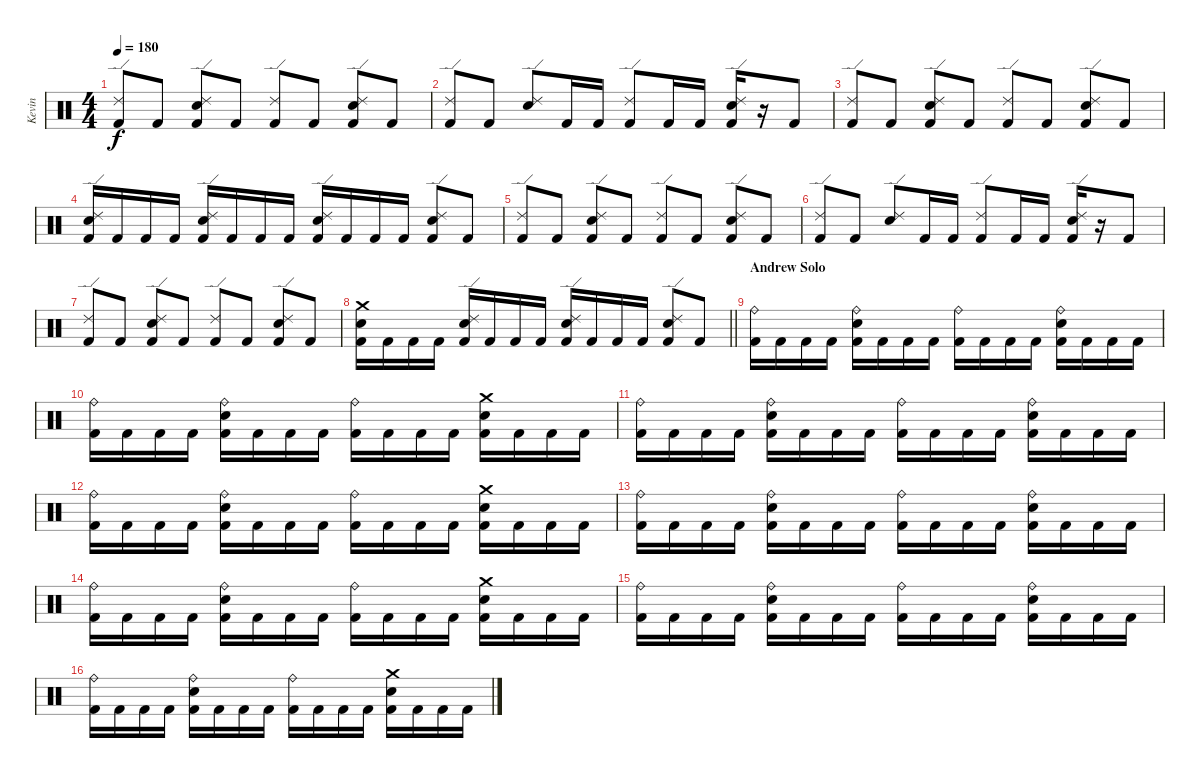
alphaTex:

\track ("Kevin" "Kevin") {instrument percussion}
\staff {score}
\articulation defaults
\ts (4 4)
\tempo 180
\clef neutral
\ks c
("Ride (edge) 2" "Kick (hit) 2").8{dy f} "Kick (hit) 2".8 ("Ride (edge) 2" "Electric Snare (hit)" "Kick (hit) 2").8 "Kick (hit) 2".8 ("Ride (edge) 2" "Kick (hit) 2").8 "Kick (hit) 2".8 ("Ride (edge) 2" "Electric Snare (hit)" "Kick (hit) 2").8 "Kick (hit) 2".8 |
("Ride (edge) 2" "Kick (hit) 2").8 "Kick (hit) 2".8 ("Ride (edge) 2" "Electric Snare (hit)").8 "Kick (hit) 2".16 "Kick (hit) 2".16 ("Ride (edge) 2" "Kick (hit) 2").8 "Kick (hit) 2".16 "Kick (hit) 2".16 ("Ride (edge) 2" "Electric Snare (hit)" "Kick (hit) 2").16 r.16 "Kick (hit) 2".8 |
("Ride (edge) 2" "Kick (hit) 2").8 "Kick (hit) 2".8 ("Ride (edge) 2" "Electric Snare (hit)" "Kick (hit) 2").8 "Kick (hit) 2".8 ("Ride (edge) 2" "Kick (hit) 2").8 "Kick (hit) 2".8 ("Ride (edge) 2" "Electric Snare (hit)" "Kick (hit) 2").8 "Kick (hit) 2".8 |
("Ride (edge) 2" "Electric Snare (hit)" "Kick (hit) 2").16 "Kick (hit) 2".16 "Kick (hit) 2".16 "Kick (hit) 2".16 ("Ride (edge) 2" "Electric Snare (hit)" "Kick (hit) 2").16 "Kick (hit) 2".16 "Kick (hit) 2".16 "Kick (hit) 2".16 ("Ride (edge) 2" "Electric Snare (hit)" "Kick (hit) 2").16 "Kick (hit) 2".16 "Kick (hit) 2".16 "Kick (hit) 2".16 ("Ride (edge) 2" "Electric Snare (hit)" "Kick (hit) 2").8 "Kick (hit) 2".8 |
("Ride (edge) 2" "Kick (hit) 2").8 "Kick (hit) 2".8 ("Ride (edge) 2" "Electric Snare (hit)" "Kick (hit) 2").8 "Kick (hit) 2".8 ("Ride (edge) 2" "Kick (hit) 2").8 "Kick (hit) 2".8 ("Ride (edge) 2" "Electric Snare (hit)" "Kick (hit) 2").8 "Kick (hit) 2".8 |
("Ride (edge) 2" "Kick (hit) 2").8 "Kick (hit) 2".8 ("Ride (edge) 2" "Electric Snare (hit)").8 "Kick (hit) 2".16 "Kick (hit) 2".16 ("Ride (edge) 2" "Kick (hit) 2").8 "Kick (hit) 2".16 "Kick (hit) 2".16 ("Ride (edge) 2" "Electric Snare (hit)" "Kick (hit) 2").16 r.16 "Kick (hit) 2".8 |
("Ride (edge) 2" "Kick (hit) 2").8 "Kick (hit) 2".8 ("Ride (edge) 2" "Electric Snare (hit)" "Kick (hit) 2").8 "Kick (hit) 2".8 ("Ride (edge) 2" "Kick (hit) 2").8 "Kick (hit) 2".8 ("Ride (edge) 2" "Electric Snare (hit)" "Kick (hit) 2").8 "Kick (hit) 2".8 |
\barLineRight lightlight
("Crash medium (hit)" "Electric Snare (hit)" "Kick (hit) 2").16 "Kick (hit) 2".16 "Kick (hit) 2".16 "Kick (hit) 2".16 ("Ride (edge) 2" "Electric Snare (hit)" "Kick (hit) 2").16 "Kick (hit) 2".16 "Kick (hit) 2".16 "Kick (hit) 2".16 ("Ride (edge) 2" "Electric Snare (hit)" "Kick (hit) 2").16 "Kick (hit) 2".16 "Kick (hit) 2".16 "Kick (hit) 2".16 ("Ride (edge) 2" "Electric Snare (hit)" "Kick (hit) 2").8 "Kick (hit) 2".8 |
\section ("" "Andrew Solo")
("Ride (bell)" "Kick (hit) 2").16 "Kick (hit) 2".16 "Kick (hit) 2".16 "Kick (hit) 2".16 ("Ride (bell)" "Electric Snare (hit)" "Kick (hit) 2").16 "Kick (hit) 2".16 "Kick (hit) 2".16 "Kick (hit) 2".16 ("Ride (bell)" "Kick (hit) 2").16 "Kick (hit) 2".16 "Kick (hit) 2".16 "Kick (hit) 2".16 ("Ride (bell)" "Electric Snare (hit)" "Kick (hit) 2").16 "Kick (hit) 2".16 "Kick (hit) 2".16 "Kick (hit) 2".16 |
("Ride (bell)" "Kick (hit) 2").16 "Kick (hit) 2".16 "Kick (hit) 2".16 "Kick (hit) 2".16 ("Ride (bell)" "Electric Snare (hit)" "Kick (hit) 2").16 "Kick (hit) 2".16 "Kick (hit) 2".16 "Kick (hit) 2".16 ("Ride (bell)" "Kick (hit) 2").16 "Kick (hit) 2".16 "Kick (hit) 2".16 "Kick (hit) 2".16 ("Crash medium (hit)" "Electric Snare (hit)" "Kick (hit) 2").16 "Kick (hit) 2".16 "Kick (hit) 2".16 "Kick (hit) 2".16 |
("Ride (bell)" "Kick (hit) 2").16 "Kick (hit) 2".16 "Kick (hit) 2".16 "Kick (hit) 2".16 ("Ride (bell)" "Electric Snare (hit)" "Kick (hit) 2").16 "Kick (hit) 2".16 "Kick (hit) 2".16 "Kick (hit) 2".16 ("Ride (bell)" "Kick (hit) 2").16 "Kick (hit) 2".16 "Kick (hit) 2".16 "Kick (hit) 2".16 ("Ride (bell)" "Electric Snare (hit)" "Kick (hit) 2").16 "Kick (hit) 2".16 "Kick (hit) 2".16 "Kick (hit) 2".16 |
("Ride (bell)" "Kick (hit) 2").16 "Kick (hit) 2".16 "Kick (hit) 2".16 "Kick (hit) 2".16 ("Ride (bell)" "Electric Snare (hit)" "Kick (hit) 2").16 "Kick (hit) 2".16 "Kick (hit) 2".16 "Kick (hit) 2".16 ("Ride (bell)" "Kick (hit) 2").16 "Kick (hit) 2".16 "Kick (hit) 2".16 "Kick (hit) 2".16 ("Crash medium (hit)" "Electric Snare (hit)" "Kick (hit) 2").16 "Kick (hit) 2".16 "Kick (hit) 2".16 "Kick (hit) 2".16 |
("Ride (bell)" "Kick (hit) 2").16 "Kick (hit) 2".16 "Kick (hit) 2".16 "Kick (hit) 2".16 ("Ride (bell)" "Electric Snare (hit)" "Kick (hit) 2").16 "Kick (hit) 2".16 "Kick (hit) 2".16 "Kick (hit) 2".16 ("Ride (bell)" "Kick (hit) 2").16 "Kick (hit) 2".16 "Kick (hit) 2".16 "Kick (hit) 2".16 ("Ride (bell)" "Electric Snare (hit)" "Kick (hit) 2").16 "Kick (hit) 2".16 "Kick (hit) 2".16 "Kick (hit) 2".16 |
("Ride (bell)" "Kick (hit) 2").16 "Kick (hit) 2".16 "Kick (hit) 2".16 "Kick (hit) 2".16 ("Ride (bell)" "Electric Snare (hit)" "Kick (hit) 2").16 "Kick (hit) 2".16 "Kick (hit) 2".16 "Kick (hit) 2".16 ("Ride (bell)" "Kick (hit) 2").16 "Kick (hit) 2".16 "Kick (hit) 2".16 "Kick (hit) 2".16 ("Crash medium (hit)" "Electric Snare (hit)" "Kick (hit) 2").16 "Kick (hit) 2".16 "Kick (hit) 2".16 "Kick (hit) 2".16 |
("Ride (bell)" "Kick (hit) 2").16 "Kick (hit) 2".16 "Kick (hit) 2".16 "Kick (hit) 2".16 ("Ride (bell)" "Electric Snare (hit)" "Kick (hit) 2").16 "Kick (hit) 2".16 "Kick (hit) 2".16 "Kick (hit) 2".16 ("Ride (bell)" "Kick (hit) 2").16 "Kick (hit) 2".16 "Kick (hit) 2".16 "Kick (hit) 2".16 ("Ride (bell)" "Electric Snare (hit)" "Kick (hit) 2").16 "Kick (hit) 2".16 "Kick (hit) 2".16 "Kick (hit) 2".16 |
("Ride (bell)" "Kick (hit) 2").16 "Kick (hit) 2".16 "Kick (hit) 2".16 "Kick (hit) 2".16 ("Ride (bell)" "Electric Snare (hit)" "Kick (hit) 2").16 "Kick (hit) 2".16 "Kick (hit) 2".16 "Kick (hit) 2".16 ("Ride (bell)" "Kick (hit) 2").16 "Kick (hit) 2".16 "Kick (hit) 2".16 "Kick (hit) 2".16 ("Crash medium (hit)" "Electric Snare (hit)" "Kick (hit) 2").16 "Kick (hit) 2".16 "Kick (hit) 2".16 "Kick (hit) 2".16
